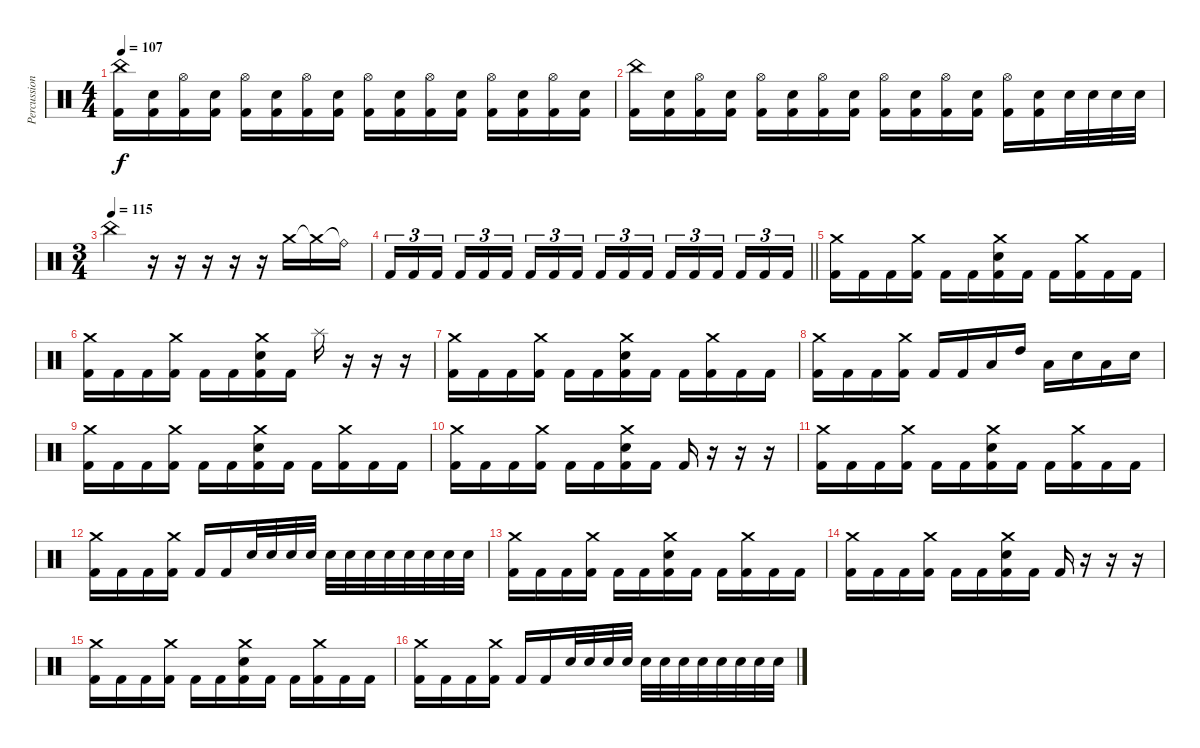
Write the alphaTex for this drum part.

\track ("Percussion" "Percussion") {instrument percussion}
\staff {score}
\articulation defaults
\ts (4 4)
\tempo 107
\clef neutral
\ks c
("Kick (hit) 2" "China (hit)").16{dy f} ("Kick (hit) 2" "Electric Snare (hit)").16 ("Kick (hit) 2" "Hi-Hat (open)").16 ("Kick (hit) 2" "Electric Snare (hit)").16 ("Kick (hit) 2" "Hi-Hat (open)").16 ("Kick (hit) 2" "Electric Snare (hit)").16 ("Kick (hit) 2" "Hi-Hat (open)").16 ("Kick (hit) 2" "Electric Snare (hit)").16 ("Kick (hit) 2" "Hi-Hat (open)").16 ("Kick (hit) 2" "Electric Snare (hit)").16 ("Kick (hit) 2" "Hi-Hat (open)").16 ("Kick (hit) 2" "Electric Snare (hit)").16 ("Kick (hit) 2" "Hi-Hat (open)").16 ("Kick (hit) 2" "Electric Snare (hit)").16 ("Kick (hit) 2" "Hi-Hat (open)").16 ("Kick (hit) 2" "Electric Snare (hit)").16 |
("Kick (hit) 2" "China (hit)").16 ("Kick (hit) 2" "Electric Snare (hit)").16 ("Kick (hit) 2" "Hi-Hat (open)").16 ("Kick (hit) 2" "Electric Snare (hit)").16 ("Kick (hit) 2" "Hi-Hat (open)").16 ("Kick (hit) 2" "Electric Snare (hit)").16 ("Kick (hit) 2" "Hi-Hat (open)").16 ("Kick (hit) 2" "Electric Snare (hit)").16 ("Kick (hit) 2" "Hi-Hat (open)").16 ("Kick (hit) 2" "Electric Snare (hit)").16 ("Kick (hit) 2" "Hi-Hat (open)").16 ("Kick (hit) 2" "Electric Snare (hit)").16 ("Kick (hit) 2" "Hi-Hat (open)").16 ("Kick (hit) 2" "Electric Snare (hit)").16 "Electric Snare (hit)".32 "Electric Snare (hit)".32 "Electric Snare (hit)".32 "Electric Snare (hit)".32 |
\ts (3 4)
\tempo (115)
"China (hit)".4 r.16 r.16 r.16 r.16 r.16 "Crash medium (hit)".16 "Crash medium (hit)"{t}.16 "Ride (bell)"{t}.16 |
\barLineRight lightlight "Kick (hit) 2".16{tu (3 2)} "Kick (hit) 2".16{tu (3 2)} "Kick (hit) 2".16{tu (3 2) beam splitsecondary} "Kick (hit) 2".16{tu (3 2)} "Kick (hit) 2".16{tu (3 2)} "Kick (hit) 2".16{tu (3 2)} "Kick (hit) 2".16{tu (3 2)} "Kick (hit) 2".16{tu (3 2)} "Kick (hit) 2".16{tu (3 2) beam splitsecondary} "Kick (hit) 2".16{tu (3 2)} "Kick (hit) 2".16{tu (3 2)} "Kick (hit) 2".16{tu (3 2)} "Kick (hit) 2".16{tu (3 2)} "Kick (hit) 2".16{tu (3 2)} "Kick (hit) 2".16{tu (3 2) beam splitsecondary} "Kick (hit) 2".16{tu (3 2)} "Kick (hit) 2".16{tu (3 2)} "Kick (hit) 2".16{tu (3 2)}
|
("Kick (hit) 2" "Crash medium (hit)").16 "Kick (hit) 2".16 "Kick (hit) 2".16 ("Kick (hit) 2" "Crash medium (hit)").16 "Kick (hit) 2".16 "Kick (hit) 2".16 ("Kick (hit) 2" "Electric Snare (hit)" "Crash medium (hit)").16 "Kick (hit) 2".16 "Kick (hit) 2".16 ("Kick (hit) 2" "Crash medium (hit)").16 "Kick (hit) 2".16 "Kick (hit) 2".16 |
("Kick (hit) 2" "Crash medium (hit)").16 "Kick (hit) 2".16 "Kick (hit) 2".16 ("Kick (hit) 2" "Crash medium (hit)").16 "Kick (hit) 2".16 "Kick (hit) 2".16 ("Kick (hit) 2" "Electric Snare (hit)" "Crash medium (hit)").16 "Kick (hit) 2".16 "Splash (hit)".16 r.16 r.16 r.16 |
("Kick (hit) 2" "Crash medium (hit)").16 "Kick (hit) 2".16 "Kick (hit) 2".16 ("Kick (hit) 2" "Crash medium (hit)").16 "Kick (hit) 2".16 "Kick (hit) 2".16 ("Kick (hit) 2" "Electric Snare (hit)" "Crash medium (hit)").16 "Kick (hit) 2".16 "Kick (hit) 2".16 ("Kick (hit) 2" "Crash medium (hit)").16 "Kick (hit) 2".16 "Kick (hit) 2".16 |
("Kick (hit) 2" "Crash medium (hit)").16 "Kick (hit) 2".16 "Kick (hit) 2".16 ("Kick (hit) 2" "Crash medium (hit)").16 "Kick (hit) 2".16 "Kick (hit) 2".16 "Low Tom (hit)".16 "High Tom (hit)".16 "Low Tom (hit)".16 "Electric Snare (hit)".16 "Low Tom (hit)".16 "Electric Snare (hit)".16 |
("Kick (hit) 2" "Crash medium (hit)").16 "Kick (hit) 2".16 "Kick (hit) 2".16 ("Kick (hit) 2" "Crash medium (hit)").16 "Kick (hit) 2".16 "Kick (hit) 2".16 ("Kick (hit) 2" "Electric Snare (hit)" "Crash medium (hit)").16 "Kick (hit) 2".16 "Kick (hit) 2".16 ("Kick (hit) 2" "Crash medium (hit)").16 "Kick (hit) 2".16 "Kick (hit) 2".16 |
("Kick (hit) 2" "Crash medium (hit)").16 "Kick (hit) 2".16 "Kick (hit) 2".16 ("Kick (hit) 2" "Crash medium (hit)").16 "Kick (hit) 2".16 "Kick (hit) 2".16 ("Kick (hit) 2" "Electric Snare (hit)" "Crash medium (hit)").16 "Kick (hit) 2".16 "Kick (hit) 2".16 r.16 r.16 r.16 |
("Kick (hit) 2" "Crash medium (hit)").16 "Kick (hit) 2".16 "Kick (hit) 2".16 ("Kick (hit) 2" "Crash medium (hit)").16 "Kick (hit) 2".16 "Kick (hit) 2".16 ("Kick (hit) 2" "Electric Snare (hit)" "Crash medium (hit)").16 "Kick (hit) 2".16 "Kick (hit) 2".16 ("Kick (hit) 2" "Crash medium (hit)").16 "Kick (hit) 2".16 "Kick (hit) 2".16 |
("Kick (hit) 2" "Crash medium (hit)").16 "Kick (hit) 2".16 "Kick (hit) 2".16 ("Kick (hit) 2" "Crash medium (hit)").16 "Kick (hit) 2".16 "Kick (hit) 2".16 "Electric Snare (hit)".32 "Electric Snare (hit)".32 "Electric Snare (hit)".32 "Electric Snare (hit)".32 "Electric Snare (hit)".32 "Electric Snare (hit)".32 "Electric Snare (hit)".32 "Electric Snare (hit)".32 "Electric Snare (hit)".32 "Electric Snare (hit)".32 "Electric Snare (hit)".32 "Electric Snare (hit)".32 |
("Kick (hit) 2" "Crash medium (hit)").16 "Kick (hit) 2".16 "Kick (hit) 2".16 ("Kick (hit) 2" "Crash medium (hit)").16 "Kick (hit) 2".16 "Kick (hit) 2".16 ("Kick (hit) 2" "Electric Snare (hit)" "Crash medium (hit)").16 "Kick (hit) 2".16 "Kick (hit) 2".16 ("Kick (hit) 2" "Crash medium (hit)").16 "Kick (hit) 2".16 "Kick (hit) 2".16 |
("Kick (hit) 2" "Crash medium (hit)").16 "Kick (hit) 2".16 "Kick (hit) 2".16 ("Kick (hit) 2" "Crash medium (hit)").16 "Kick (hit) 2".16 "Kick (hit) 2".16 ("Kick (hit) 2" "Electric Snare (hit)" "Crash medium (hit)").16 "Kick (hit) 2".16 "Kick (hit) 2".16 r.16 r.16 r.16 |
("Kick (hit) 2" "Crash medium (hit)").16 "Kick (hit) 2".16 "Kick (hit) 2".16 ("Kick (hit) 2" "Crash medium (hit)").16 "Kick (hit) 2".16 "Kick (hit) 2".16 ("Kick (hit) 2" "Electric Snare (hit)" "Crash medium (hit)").16 "Kick (hit) 2".16 "Kick (hit) 2".16 ("Kick (hit) 2" "Crash medium (hit)").16 "Kick (hit) 2".16 "Kick (hit) 2".16 |
("Kick (hit) 2" "Crash medium (hit)").16 "Kick (hit) 2".16 "Kick (hit) 2".16 ("Kick (hit) 2" "Crash medium (hit)").16 "Kick (hit) 2".16 "Kick (hit) 2".16 "Electric Snare (hit)".32 "Electric Snare (hit)".32 "Electric Snare (hit)".32 "Electric Snare (hit)".32 "Electric Snare (hit)".32 "Electric Snare (hit)".32 "Electric Snare (hit)".32 "Electric Snare (hit)".32 "Electric Snare (hit)".32 "Electric Snare (hit)".32 "Electric Snare (hit)".32 "Electric Snare (hit)".32
